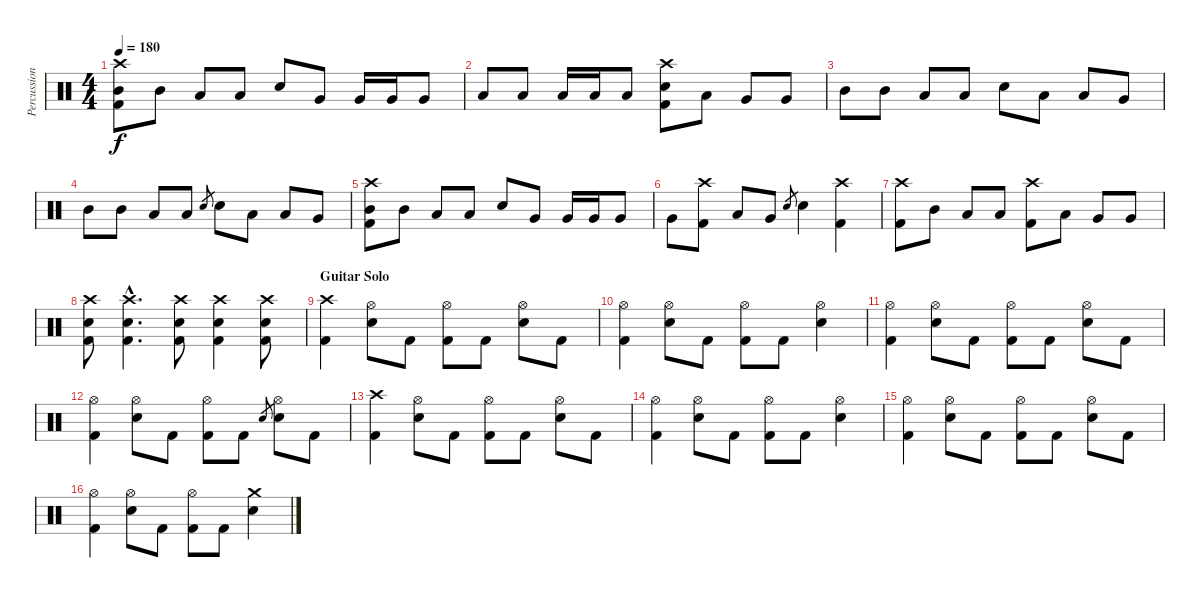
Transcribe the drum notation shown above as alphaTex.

\track ("Percussion" "Percussion") {instrument percussion}
\staff {score}
\articulation defaults
\ts (4 4)
\tempo 180
\clef neutral
\ks c
("Crash high (hit)" "Mid Tom (hit)" "Kick (hit) 2").8{dy f} "Mid Tom (hit)".8 "Low Tom (hit)".8 "Low Tom (hit)".8 "Electric Snare (hit)".8 "Very Low Tom (hit)".8 "Very Low Tom (hit)".16 "Very Low Tom (hit)".16 "Very Low Tom (hit)".8 |
"Low Tom (hit)".8 "Low Tom (hit)".8 "Low Tom (hit)".16 "Low Tom (hit)".16 "Low Tom (hit)".8 ("Crash high (hit)" "Electric Snare (hit)" "Kick (hit) 2").8 "Low Tom (hit)".8 "Very Low Tom (hit)".8 "Very Low Tom (hit)".8 |
"Mid Tom (hit)".8 "Mid Tom (hit)".8 "Low Tom (hit)".8 "Low Tom (hit)".8 "Electric Snare (hit)".8 "Low Tom (hit)".8 "Low Tom (hit)".8 "Very Low Tom (hit)".8 |
"Mid Tom (hit)".8 "Mid Tom (hit)".8 "Low Tom (hit)".8 "Low Tom (hit)".8 "Electric Snare (hit)".8{gr} "Electric Snare (hit)".8 "Low Tom (hit)".8 "Low Tom (hit)".8 "Very Low Tom (hit)".8 |
("Crash high (hit)" "Mid Tom (hit)" "Kick (hit) 2").8 "Mid Tom (hit)".8 "Low Tom (hit)".8 "Low Tom (hit)".8 "Electric Snare (hit)".8 "Very Low Tom (hit)".8 "Very Low Tom (hit)".16 "Very Low Tom (hit)".16 "Very Low Tom (hit)".8 |
"Very Low Tom (hit)".8 ("Crash high (hit)" "Kick (hit) 2").8 "Low Tom (hit)".8 "Very Low Tom (hit)".8 "Electric Snare (hit)".8{gr} "Electric Snare (hit)".4 ("Crash high (hit)" "Kick (hit) 2").4 |
("Crash high (hit)" "Kick (hit) 2").8 "Mid Tom (hit)".8 "Low Tom (hit)".8 "Low Tom (hit)".8 ("Crash high (hit)" "Kick (hit) 2").8 "Low Tom (hit)".8 "Very Low Tom (hit)".8 "Very Low Tom (hit)".8 |
("Crash high (hit)" "Electric Snare (hit)" "Kick (hit) 2").8 ("Crash high (hit)"{hac} "Electric Snare (hit)"{hac} "Kick (hit) 2"{hac}).4{d} ("Crash high (hit)" "Electric Snare (hit)" "Kick (hit) 2").8 ("Crash high (hit)" "Electric Snare (hit)" "Kick (hit) 2").4 ("Crash high (hit)" "Electric Snare (hit)" "Kick (hit) 2").8 |
\section ("" "Guitar Solo")
("Crash high (hit)" "Kick (hit) 2").4 ("Hi-Hat (open)" "Electric Snare (hit)").8 "Kick (hit) 2".8 ("Hi-Hat (open)" "Kick (hit) 2").8 "Kick (hit) 2".8 ("Hi-Hat (open)" "Electric Snare (hit)").8 "Kick (hit) 2".8 |
("Hi-Hat (open)" "Kick (hit) 2").4 ("Hi-Hat (open)" "Electric Snare (hit)").8 "Kick (hit) 2".8 ("Hi-Hat (open)" "Kick (hit) 2").8 "Kick (hit) 2".8 ("Hi-Hat (open)" "Electric Snare (hit)").4 |
("Hi-Hat (open)" "Kick (hit) 2").4 ("Hi-Hat (open)" "Electric Snare (hit)").8 "Kick (hit) 2".8 ("Hi-Hat (open)" "Kick (hit) 2").8 "Kick (hit) 2".8 ("Hi-Hat (open)" "Electric Snare (hit)").8 "Kick (hit) 2".8 |
("Hi-Hat (open)" "Kick (hit) 2").4 ("Hi-Hat (open)" "Electric Snare (hit)").8 "Kick (hit) 2".8 ("Hi-Hat (open)" "Kick (hit) 2").8 "Kick (hit) 2".8 "Electric Snare (hit)".8{gr} ("Hi-Hat (open)" "Electric Snare (hit)").8 "Kick (hit) 2".8 |
("Crash high (hit)" "Kick (hit) 2").4 ("Hi-Hat (open)" "Electric Snare (hit)").8 "Kick (hit) 2".8 ("Hi-Hat (open)" "Kick (hit) 2").8 "Kick (hit) 2".8 ("Hi-Hat (open)" "Electric Snare (hit)").8 "Kick (hit) 2".8 |
("Hi-Hat (open)" "Kick (hit) 2").4 ("Hi-Hat (open)" "Electric Snare (hit)").8 "Kick (hit) 2".8 ("Hi-Hat (open)" "Kick (hit) 2").8 "Kick (hit) 2".8 ("Hi-Hat (open)" "Electric Snare (hit)").4 |
("Hi-Hat (open)" "Kick (hit) 2").4 ("Hi-Hat (open)" "Electric Snare (hit)").8 "Kick (hit) 2".8 ("Hi-Hat (open)" "Kick (hit) 2").8 "Kick (hit) 2".8 ("Hi-Hat (open)" "Electric Snare (hit)").8 "Kick (hit) 2".8 |
("Hi-Hat (open)" "Kick (hit) 2").4 ("Hi-Hat (open)" "Electric Snare (hit)").8 "Kick (hit) 2".8 ("Hi-Hat (open)" "Kick (hit) 2").8 "Kick (hit) 2".8 ("Crash medium (hit)" "Electric Snare (hit)").4
